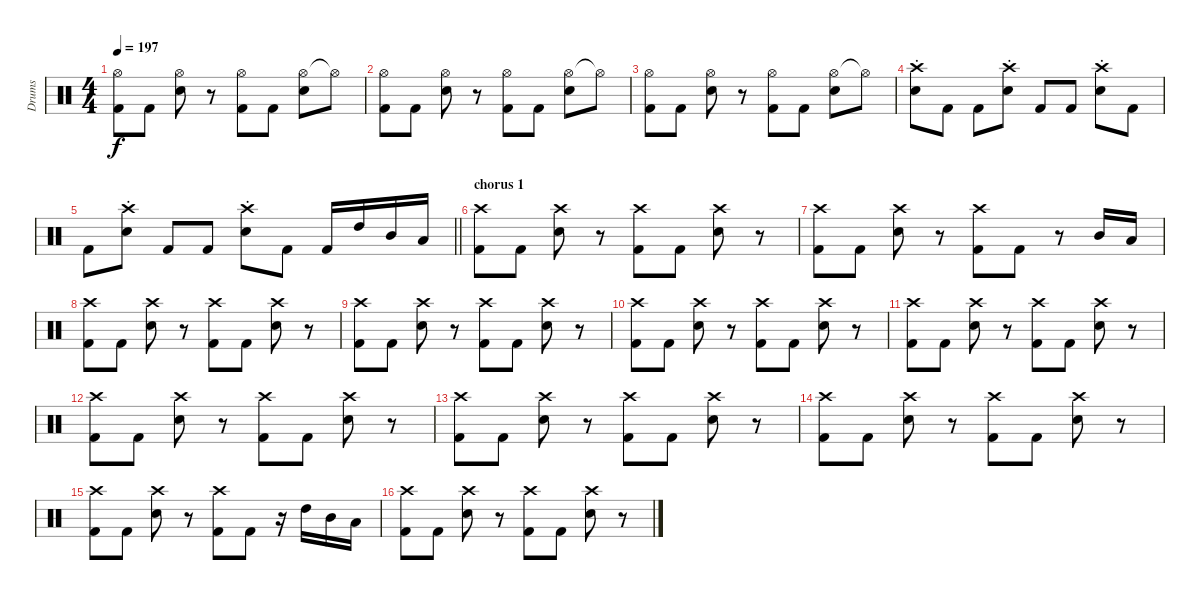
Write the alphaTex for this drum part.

\track ("Drums" "Drums") {instrument percussion}
\staff {score}
\articulation defaults
\ts (4 4)
\tempo 197
\clef neutral
\ks c
("Hi-Hat (open)" "Kick (hit) 2").8{dy f} "Kick (hit) 2".8 ("Hi-Hat (open)" "Snare (hit) 2").8 r.8 ("Hi-Hat (open)" "Kick (hit) 2").8 "Kick (hit) 2".8 ("Hi-Hat (open)" "Snare (hit) 2").8 "Hi-Hat (open)"{t}.8 |
("Hi-Hat (open)" "Kick (hit) 2").8 "Kick (hit) 2".8 ("Hi-Hat (open)" "Snare (hit) 2").8 r.8 ("Hi-Hat (open)" "Kick (hit) 2").8 "Kick (hit) 2".8 ("Hi-Hat (open)" "Snare (hit) 2").8 "Hi-Hat (open)"{t}.8 |
("Hi-Hat (open)" "Kick (hit) 2").8 "Kick (hit) 2".8 ("Hi-Hat (open)" "Snare (hit) 2").8 r.8 ("Hi-Hat (open)" "Kick (hit) 2").8 "Kick (hit) 2".8 ("Hi-Hat (open)" "Snare (hit) 2").8 "Hi-Hat (open)"{t}.8 |
("Crash high (hit)"{st} "Snare (hit) 2"{st}).8 "Kick (hit) 2".8 "Kick (hit) 2".8 ("Crash high (hit)"{st} "Snare (hit) 2"{st}).8 "Kick (hit) 2".8 "Kick (hit) 2".8 ("Crash high (hit)"{st} "Snare (hit) 2"{st}).8 "Kick (hit) 2".8 |
\barLineRight lightlight "Kick (hit) 2".8
("Crash high (hit)"{st} "Snare (hit) 2"{st}).8 "Kick (hit) 2".8 "Kick (hit) 2".8 ("Crash high (hit)"{st} "Snare (hit) 2"{st}).8 "Kick (hit) 2".8 "Kick (hit) 2".16 "High Tom (hit)".16 "Mid Tom (hit)".16 "Low Tom (hit)".16 |
\section ("" "chorus 1")
("Crash high (hit)" "Kick (hit) 2").8 "Kick (hit) 2".8 ("Crash high (hit)" "Snare (hit) 2").8 r.8 ("Crash high (hit)" "Kick (hit) 2").8 "Kick (hit) 2".8 ("Crash high (hit)" "Snare (hit) 2").8 r.8 |
("Crash high (hit)" "Kick (hit) 2").8 "Kick (hit) 2".8 ("Crash high (hit)" "Snare (hit) 2").8 r.8 ("Crash high (hit)" "Kick (hit) 2").8 "Kick (hit) 2".8 r.8 "Mid Tom (hit)".16 "Low Tom (hit)".16 |
("Crash high (hit)" "Kick (hit) 2").8 "Kick (hit) 2".8 ("Crash high (hit)" "Snare (hit) 2").8 r.8 ("Crash high (hit)" "Kick (hit) 2").8 "Kick (hit) 2".8 ("Crash high (hit)" "Snare (hit) 2").8 r.8 |
("Crash high (hit)" "Kick (hit) 2").8 "Kick (hit) 2".8 ("Crash high (hit)" "Snare (hit) 2").8 r.8 ("Crash high (hit)" "Kick (hit) 2").8 "Kick (hit) 2".8 ("Crash high (hit)" "Snare (hit) 2").8 r.8 |
("Crash high (hit)" "Kick (hit) 2").8 "Kick (hit) 2".8 ("Crash high (hit)" "Snare (hit) 2").8 r.8 ("Crash high (hit)" "Kick (hit) 2").8 "Kick (hit) 2".8 ("Crash high (hit)" "Snare (hit) 2").8 r.8 |
("Crash high (hit)" "Kick (hit) 2").8 "Kick (hit) 2".8 ("Crash high (hit)" "Snare (hit) 2").8 r.8 ("Crash high (hit)" "Kick (hit) 2").8 "Kick (hit) 2".8 ("Crash high (hit)" "Snare (hit) 2").8 r.8 |
("Crash high (hit)" "Kick (hit) 2").8 "Kick (hit) 2".8 ("Crash high (hit)" "Snare (hit) 2").8 r.8 ("Crash high (hit)" "Kick (hit) 2").8 "Kick (hit) 2".8 ("Crash high (hit)" "Snare (hit) 2").8 r.8 |
("Crash high (hit)" "Kick (hit) 2").8 "Kick (hit) 2".8 ("Crash high (hit)" "Snare (hit) 2").8 r.8 ("Crash high (hit)" "Kick (hit) 2").8 "Kick (hit) 2".8 ("Crash high (hit)" "Snare (hit) 2").8 r.8 |
("Crash high (hit)" "Kick (hit) 2").8 "Kick (hit) 2".8 ("Crash high (hit)" "Snare (hit) 2").8 r.8 ("Crash high (hit)" "Kick (hit) 2").8 "Kick (hit) 2".8 ("Crash high (hit)" "Snare (hit) 2").8 r.8 |
("Crash high (hit)" "Kick (hit) 2").8 "Kick (hit) 2".8 ("Crash high (hit)" "Snare (hit) 2").8 r.8 ("Crash high (hit)" "Kick (hit) 2").8 "Kick (hit) 2".8 r.16 "High Tom (hit)".16 "Mid Tom (hit)".16 "Low Tom (hit)".16 |
("Crash high (hit)" "Kick (hit) 2").8 "Kick (hit) 2".8 ("Crash high (hit)" "Snare (hit) 2").8 r.8 ("Crash high (hit)" "Kick (hit) 2").8 "Kick (hit) 2".8 ("Crash high (hit)" "Snare (hit) 2").8 r.8
